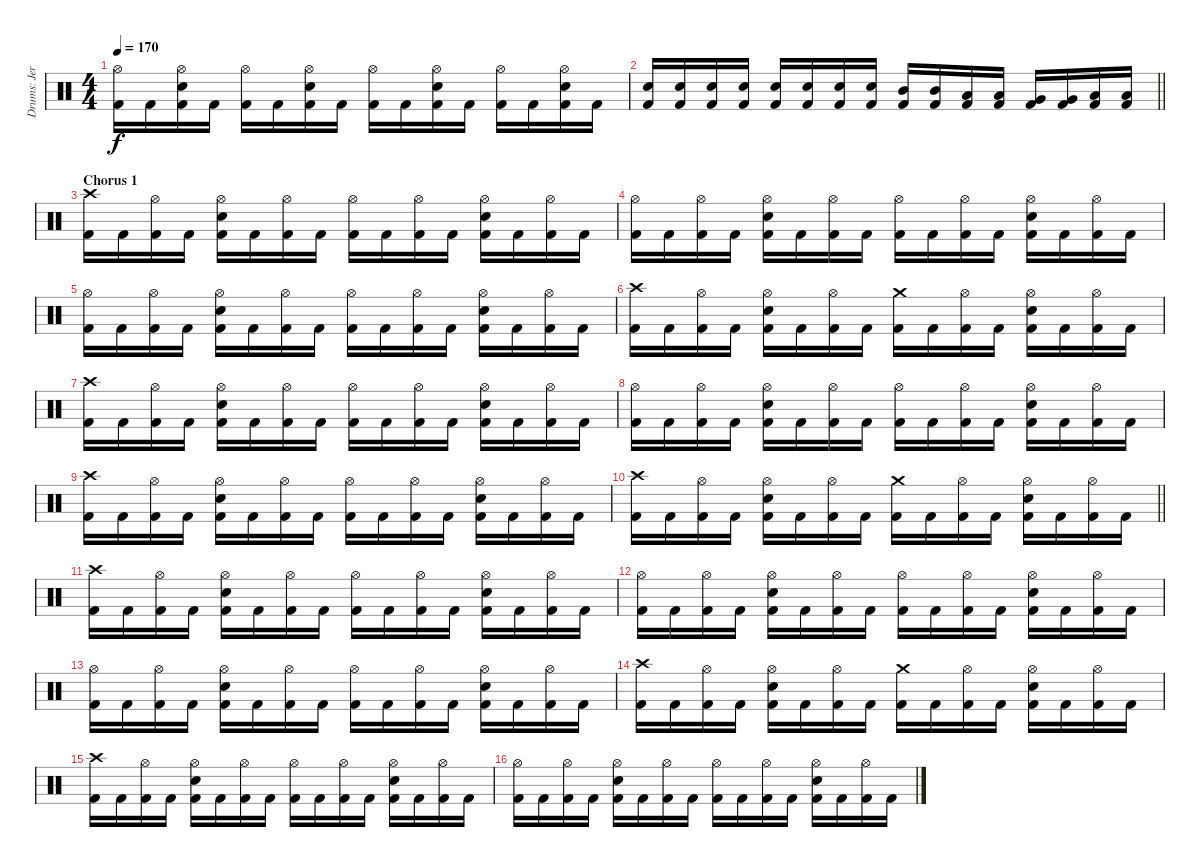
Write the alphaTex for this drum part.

\track ("Drums: Jere Luokkamäki" "Drums: Jer") {instrument percussion}
\staff {score}
\articulation defaults
\ts (4 4)
\tempo 170
\clef neutral
\ks aminor
("Hi-Hat (open)" "Kick (hit) 2").16{dy f} "Kick (hit) 2".16 ("Hi-Hat (open)" "Electric Snare (hit)" "Kick (hit) 2").16 "Kick (hit) 2".16 ("Hi-Hat (open)" "Kick (hit) 2").16 "Kick (hit) 2".16 ("Hi-Hat (open)" "Electric Snare (hit)" "Kick (hit) 2").16 "Kick (hit) 2".16 ("Hi-Hat (open)" "Kick (hit) 2").16 "Kick (hit) 2".16 ("Hi-Hat (open)" "Electric Snare (hit)" "Kick (hit) 2").16 "Kick (hit) 2".16 ("Hi-Hat (open)" "Kick (hit) 2").16 "Kick (hit) 2".16 ("Hi-Hat (open)" "Electric Snare (hit)" "Kick (hit) 2").16 "Kick (hit) 2".16 |
\barLineRight lightlight
("Electric Snare (hit)" "Kick (hit) 2").16 ("Electric Snare (hit)" "Kick (hit) 2").16 ("Electric Snare (hit)" "Kick (hit) 2").16 ("Electric Snare (hit)" "Kick (hit) 2").16 ("Electric Snare (hit)" "Kick (hit) 2").16 ("Electric Snare (hit)" "Kick (hit) 2").16 ("Electric Snare (hit)" "Kick (hit) 2").16 ("Electric Snare (hit)" "Kick (hit) 2").16 ("Mid Tom (hit)" "Kick (hit) 2").16 ("Mid Tom (hit)" "Kick (hit) 2").16 ("Low Tom (hit)" "Kick (hit) 2").16 ("Low Tom (hit)" "Kick (hit) 2").16 ("Very Low Tom (hit)" "Kick (hit) 2").16 ("Very Low Tom (hit)" "Kick (hit) 2").16 ("Low Tom (hit)" "Kick (hit) 2").16 ("Low Tom (hit)" "Kick (hit) 2").16 |
\section ("" "Chorus 1")
("Crash high (hit)" "Kick (hit) 2").16 "Kick (hit) 2".16 ("Hi-Hat (open)" "Kick (hit) 2").16 "Kick (hit) 2".16 ("Hi-Hat (open)" "Electric Snare (hit)" "Kick (hit) 2").16 "Kick (hit) 2".16 ("Hi-Hat (open)" "Kick (hit) 2").16 "Kick (hit) 2".16 ("Hi-Hat (open)" "Kick (hit) 2").16 "Kick (hit) 2".16 ("Hi-Hat (open)" "Kick (hit) 2").16 "Kick (hit) 2".16 ("Hi-Hat (open)" "Electric Snare (hit)" "Kick (hit) 2").16 "Kick (hit) 2".16 ("Hi-Hat (open)" "Kick (hit) 2").16 "Kick (hit) 2".16 |
("Hi-Hat (open)" "Kick (hit) 2").16 "Kick (hit) 2".16 ("Hi-Hat (open)" "Kick (hit) 2").16 "Kick (hit) 2".16 ("Hi-Hat (open)" "Electric Snare (hit)" "Kick (hit) 2").16 "Kick (hit) 2".16 ("Hi-Hat (open)" "Kick (hit) 2").16 "Kick (hit) 2".16 ("Hi-Hat (open)" "Kick (hit) 2").16 "Kick (hit) 2".16 ("Hi-Hat (open)" "Kick (hit) 2").16 "Kick (hit) 2".16 ("Hi-Hat (open)" "Electric Snare (hit)" "Kick (hit) 2").16 "Kick (hit) 2".16 ("Hi-Hat (open)" "Kick (hit) 2").16 "Kick (hit) 2".16 |
("Hi-Hat (open)" "Kick (hit) 2").16 "Kick (hit) 2".16 ("Hi-Hat (open)" "Kick (hit) 2").16 "Kick (hit) 2".16 ("Hi-Hat (open)" "Electric Snare (hit)" "Kick (hit) 2").16 "Kick (hit) 2".16 ("Hi-Hat (open)" "Kick (hit) 2").16 "Kick (hit) 2".16 ("Hi-Hat (open)" "Kick (hit) 2").16 "Kick (hit) 2".16 ("Hi-Hat (open)" "Kick (hit) 2").16 "Kick (hit) 2".16 ("Hi-Hat (open)" "Electric Snare (hit)" "Kick (hit) 2").16 "Kick (hit) 2".16 ("Hi-Hat (open)" "Kick (hit) 2").16 "Kick (hit) 2".16 |
("Crash high (hit)" "Kick (hit) 2").16 "Kick (hit) 2".16 ("Hi-Hat (open)" "Kick (hit) 2").16 "Kick (hit) 2".16 ("Hi-Hat (open)" "Electric Snare (hit)" "Kick (hit) 2").16 "Kick (hit) 2".16 ("Hi-Hat (open)" "Kick (hit) 2").16 "Kick (hit) 2".16 ("Crash medium (hit)" "Kick (hit) 2").16 "Kick (hit) 2".16 ("Hi-Hat (open)" "Kick (hit) 2").16 "Kick (hit) 2".16 ("Hi-Hat (open)" "Electric Snare (hit)" "Kick (hit) 2").16 "Kick (hit) 2".16 ("Hi-Hat (open)" "Kick (hit) 2").16 "Kick (hit) 2".16 |
("Crash high (hit)" "Kick (hit) 2").16 "Kick (hit) 2".16 ("Hi-Hat (open)" "Kick (hit) 2").16 "Kick (hit) 2".16 ("Hi-Hat (open)" "Electric Snare (hit)" "Kick (hit) 2").16 "Kick (hit) 2".16 ("Hi-Hat (open)" "Kick (hit) 2").16 "Kick (hit) 2".16 ("Hi-Hat (open)" "Kick (hit) 2").16 "Kick (hit) 2".16 ("Hi-Hat (open)" "Kick (hit) 2").16 "Kick (hit) 2".16 ("Hi-Hat (open)" "Electric Snare (hit)" "Kick (hit) 2").16 "Kick (hit) 2".16 ("Hi-Hat (open)" "Kick (hit) 2").16 "Kick (hit) 2".16 |
("Hi-Hat (open)" "Kick (hit) 2").16 "Kick (hit) 2".16 ("Hi-Hat (open)" "Kick (hit) 2").16 "Kick (hit) 2".16 ("Hi-Hat (open)" "Electric Snare (hit)" "Kick (hit) 2").16 "Kick (hit) 2".16 ("Hi-Hat (open)" "Kick (hit) 2").16 "Kick (hit) 2".16 ("Hi-Hat (open)" "Kick (hit) 2").16 "Kick (hit) 2".16 ("Hi-Hat (open)" "Kick (hit) 2").16 "Kick (hit) 2".16 ("Hi-Hat (open)" "Electric Snare (hit)" "Kick (hit) 2").16 "Kick (hit) 2".16 ("Hi-Hat (open)" "Kick (hit) 2").16 "Kick (hit) 2".16 |
("Crash high (hit)" "Kick (hit) 2").16 "Kick (hit) 2".16 ("Hi-Hat (open)" "Kick (hit) 2").16 "Kick (hit) 2".16 ("Hi-Hat (open)" "Electric Snare (hit)" "Kick (hit) 2").16 "Kick (hit) 2".16 ("Hi-Hat (open)" "Kick (hit) 2").16 "Kick (hit) 2".16 ("Hi-Hat (open)" "Kick (hit) 2").16 "Kick (hit) 2".16 ("Hi-Hat (open)" "Kick (hit) 2").16 "Kick (hit) 2".16 ("Hi-Hat (open)" "Electric Snare (hit)" "Kick (hit) 2").16 "Kick (hit) 2".16 ("Hi-Hat (open)" "Kick (hit) 2").16 "Kick (hit) 2".16 |
\barLineRight lightlight
("Crash high (hit)" "Kick (hit) 2").16 "Kick (hit) 2".16 ("Hi-Hat (open)" "Kick (hit) 2").16 "Kick (hit) 2".16 ("Hi-Hat (open)" "Electric Snare (hit)" "Kick (hit) 2").16 "Kick (hit) 2".16 ("Hi-Hat (open)" "Kick (hit) 2").16 "Kick (hit) 2".16 ("Crash medium (hit)" "Kick (hit) 2").16 "Kick (hit) 2".16 ("Hi-Hat (open)" "Kick (hit) 2").16 "Kick (hit) 2".16 ("Hi-Hat (open)" "Electric Snare (hit)" "Kick (hit) 2").16 "Kick (hit) 2".16 ("Hi-Hat (open)" "Kick (hit) 2").16 "Kick (hit) 2".16 |
("Crash high (hit)" "Kick (hit) 2").16 "Kick (hit) 2".16 ("Hi-Hat (open)" "Kick (hit) 2").16 "Kick (hit) 2".16 ("Hi-Hat (open)" "Electric Snare (hit)" "Kick (hit) 2").16 "Kick (hit) 2".16 ("Hi-Hat (open)" "Kick (hit) 2").16 "Kick (hit) 2".16 ("Hi-Hat (open)" "Kick (hit) 2").16 "Kick (hit) 2".16 ("Hi-Hat (open)" "Kick (hit) 2").16 "Kick (hit) 2".16 ("Hi-Hat (open)" "Electric Snare (hit)" "Kick (hit) 2").16 "Kick (hit) 2".16 ("Hi-Hat (open)" "Kick (hit) 2").16 "Kick (hit) 2".16 |
("Hi-Hat (open)" "Kick (hit) 2").16 "Kick (hit) 2".16 ("Hi-Hat (open)" "Kick (hit) 2").16 "Kick (hit) 2".16 ("Hi-Hat (open)" "Electric Snare (hit)" "Kick (hit) 2").16 "Kick (hit) 2".16 ("Hi-Hat (open)" "Kick (hit) 2").16 "Kick (hit) 2".16 ("Hi-Hat (open)" "Kick (hit) 2").16 "Kick (hit) 2".16 ("Hi-Hat (open)" "Kick (hit) 2").16 "Kick (hit) 2".16 ("Hi-Hat (open)" "Electric Snare (hit)" "Kick (hit) 2").16 "Kick (hit) 2".16 ("Hi-Hat (open)" "Kick (hit) 2").16 "Kick (hit) 2".16 |
("Hi-Hat (open)" "Kick (hit) 2").16 "Kick (hit) 2".16 ("Hi-Hat (open)" "Kick (hit) 2").16 "Kick (hit) 2".16 ("Hi-Hat (open)" "Electric Snare (hit)" "Kick (hit) 2").16 "Kick (hit) 2".16 ("Hi-Hat (open)" "Kick (hit) 2").16 "Kick (hit) 2".16 ("Hi-Hat (open)" "Kick (hit) 2").16 "Kick (hit) 2".16 ("Hi-Hat (open)" "Kick (hit) 2").16 "Kick (hit) 2".16 ("Hi-Hat (open)" "Electric Snare (hit)" "Kick (hit) 2").16 "Kick (hit) 2".16 ("Hi-Hat (open)" "Kick (hit) 2").16 "Kick (hit) 2".16 |
("Crash high (hit)" "Kick (hit) 2").16 "Kick (hit) 2".16 ("Hi-Hat (open)" "Kick (hit) 2").16 "Kick (hit) 2".16 ("Hi-Hat (open)" "Electric Snare (hit)" "Kick (hit) 2").16 "Kick (hit) 2".16 ("Hi-Hat (open)" "Kick (hit) 2").16 "Kick (hit) 2".16 ("Crash medium (hit)" "Kick (hit) 2").16 "Kick (hit) 2".16 ("Hi-Hat (open)" "Kick (hit) 2").16 "Kick (hit) 2".16 ("Hi-Hat (open)" "Electric Snare (hit)" "Kick (hit) 2").16 "Kick (hit) 2".16 ("Hi-Hat (open)" "Kick (hit) 2").16 "Kick (hit) 2".16 |
("Crash high (hit)" "Kick (hit) 2").16 "Kick (hit) 2".16 ("Hi-Hat (open)" "Kick (hit) 2").16 "Kick (hit) 2".16 ("Hi-Hat (open)" "Electric Snare (hit)" "Kick (hit) 2").16 "Kick (hit) 2".16 ("Hi-Hat (open)" "Kick (hit) 2").16 "Kick (hit) 2".16 ("Hi-Hat (open)" "Kick (hit) 2").16 "Kick (hit) 2".16 ("Hi-Hat (open)" "Kick (hit) 2").16 "Kick (hit) 2".16 ("Hi-Hat (open)" "Electric Snare (hit)" "Kick (hit) 2").16 "Kick (hit) 2".16 ("Hi-Hat (open)" "Kick (hit) 2").16 "Kick (hit) 2".16 |
("Hi-Hat (open)" "Kick (hit) 2").16 "Kick (hit) 2".16 ("Hi-Hat (open)" "Kick (hit) 2").16 "Kick (hit) 2".16 ("Hi-Hat (open)" "Electric Snare (hit)" "Kick (hit) 2").16 "Kick (hit) 2".16 ("Hi-Hat (open)" "Kick (hit) 2").16 "Kick (hit) 2".16 ("Hi-Hat (open)" "Kick (hit) 2").16 "Kick (hit) 2".16 ("Hi-Hat (open)" "Kick (hit) 2").16 "Kick (hit) 2".16 ("Hi-Hat (open)" "Electric Snare (hit)" "Kick (hit) 2").16 "Kick (hit) 2".16 ("Hi-Hat (open)" "Kick (hit) 2").16 "Kick (hit) 2".16
